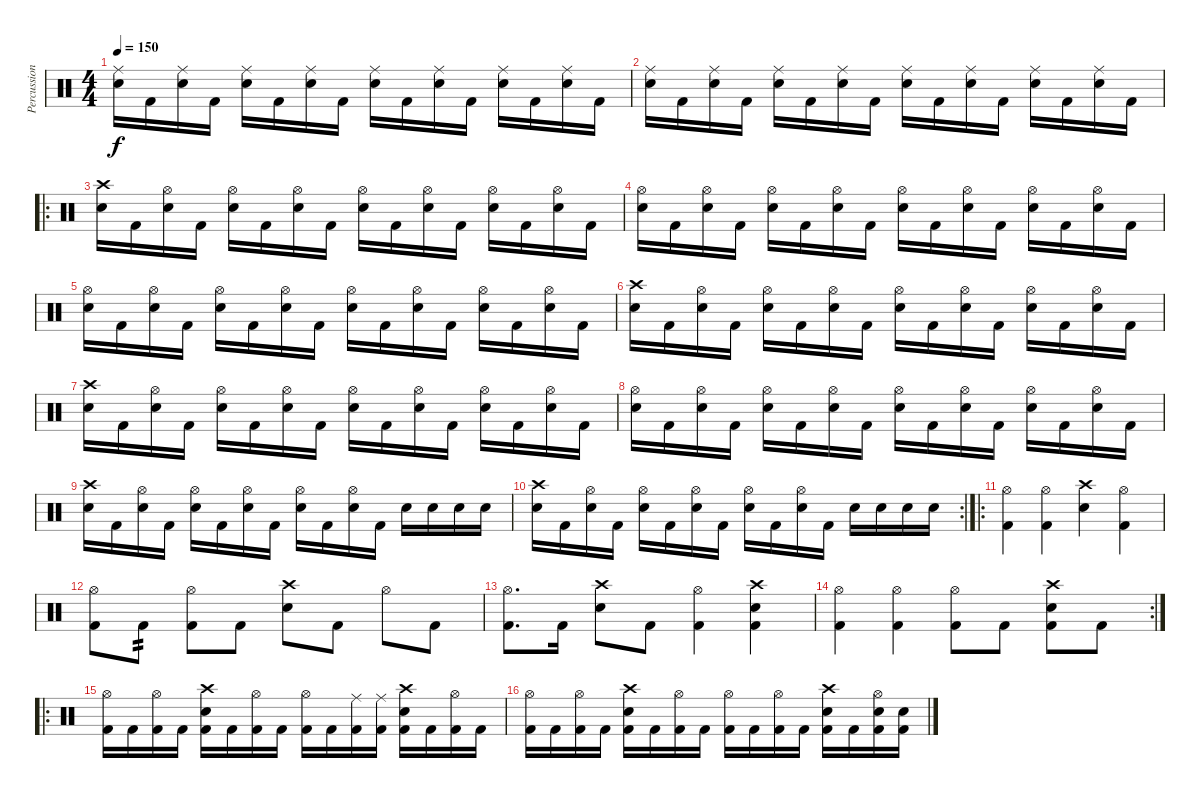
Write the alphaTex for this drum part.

\track ("Percussion" "Percussion") {instrument percussion}
\staff {score}
\articulation defaults
\ts (4 4)
\tempo 150
\clef neutral
\ks c
("Ride (middle)" "Electric Snare (hit)").16{dy f} "Kick (hit) 2".16 ("Ride (middle)" "Electric Snare (hit)").16 "Kick (hit) 2".16 ("Ride (middle)" "Electric Snare (hit)").16 "Kick (hit) 2".16 ("Ride (middle)" "Electric Snare (hit)").16 "Kick (hit) 2".16 ("Ride (middle)" "Electric Snare (hit)").16 "Kick (hit) 2".16 ("Ride (middle)" "Electric Snare (hit)").16 "Kick (hit) 2".16 ("Ride (middle)" "Electric Snare (hit)").16 "Kick (hit) 2".16 ("Ride (middle)" "Electric Snare (hit)").16 "Kick (hit) 2".16 |
("Ride (middle)" "Electric Snare (hit)").16 "Kick (hit) 2".16 ("Ride (middle)" "Electric Snare (hit)").16 "Kick (hit) 2".16 ("Ride (middle)" "Electric Snare (hit)").16 "Kick (hit) 2".16 ("Ride (middle)" "Electric Snare (hit)").16 "Kick (hit) 2".16 ("Ride (middle)" "Electric Snare (hit)").16 "Kick (hit) 2".16 ("Ride (middle)" "Electric Snare (hit)").16 "Kick (hit) 2".16 ("Ride (middle)" "Electric Snare (hit)").16 "Kick (hit) 2".16 ("Ride (middle)" "Electric Snare (hit)").16 "Kick (hit) 2".16 |
\ro
("Crash high (hit)" "Electric Snare (hit)").16 "Kick (hit) 2".16 ("Hi-Hat (open)" "Electric Snare (hit)").16 "Kick (hit) 2".16 ("Hi-Hat (open)" "Electric Snare (hit)").16 "Kick (hit) 2".16 ("Hi-Hat (open)" "Electric Snare (hit)").16 "Kick (hit) 2".16 ("Hi-Hat (open)" "Electric Snare (hit)").16 "Kick (hit) 2".16 ("Hi-Hat (open)" "Electric Snare (hit)").16 "Kick (hit) 2".16 ("Hi-Hat (open)" "Electric Snare (hit)").16 "Kick (hit) 2".16 ("Hi-Hat (open)" "Electric Snare (hit)").16 "Kick (hit) 2".16 |
("Hi-Hat (open)" "Electric Snare (hit)").16 "Kick (hit) 2".16 ("Hi-Hat (open)" "Electric Snare (hit)").16 "Kick (hit) 2".16 ("Hi-Hat (open)" "Electric Snare (hit)").16 "Kick (hit) 2".16 ("Hi-Hat (open)" "Electric Snare (hit)").16 "Kick (hit) 2".16 ("Hi-Hat (open)" "Electric Snare (hit)").16 "Kick (hit) 2".16 ("Hi-Hat (open)" "Electric Snare (hit)").16 "Kick (hit) 2".16 ("Hi-Hat (open)" "Electric Snare (hit)").16 "Kick (hit) 2".16 ("Hi-Hat (open)" "Electric Snare (hit)").16 "Kick (hit) 2".16 |
("Hi-Hat (open)" "Electric Snare (hit)").16 "Kick (hit) 2".16 ("Hi-Hat (open)" "Electric Snare (hit)").16 "Kick (hit) 2".16 ("Hi-Hat (open)" "Electric Snare (hit)").16 "Kick (hit) 2".16 ("Hi-Hat (open)" "Electric Snare (hit)").16 "Kick (hit) 2".16 ("Hi-Hat (open)" "Electric Snare (hit)").16 "Kick (hit) 2".16 ("Hi-Hat (open)" "Electric Snare (hit)").16 "Kick (hit) 2".16 ("Hi-Hat (open)" "Electric Snare (hit)").16 "Kick (hit) 2".16 ("Hi-Hat (open)" "Electric Snare (hit)").16 "Kick (hit) 2".16 |
("Crash high (hit)" "Electric Snare (hit)").16 "Kick (hit) 2".16 ("Hi-Hat (open)" "Electric Snare (hit)").16 "Kick (hit) 2".16 ("Hi-Hat (open)" "Electric Snare (hit)").16 "Kick (hit) 2".16 ("Hi-Hat (open)" "Electric Snare (hit)").16 "Kick (hit) 2".16 ("Hi-Hat (open)" "Electric Snare (hit)").16 "Kick (hit) 2".16 ("Hi-Hat (open)" "Electric Snare (hit)").16 "Kick (hit) 2".16 ("Hi-Hat (open)" "Electric Snare (hit)").16 "Kick (hit) 2".16 ("Hi-Hat (open)" "Electric Snare (hit)").16 "Kick (hit) 2".16 |
("Crash high (hit)" "Electric Snare (hit)").16 "Kick (hit) 2".16 ("Hi-Hat (open)" "Electric Snare (hit)").16 "Kick (hit) 2".16 ("Hi-Hat (open)" "Electric Snare (hit)").16 "Kick (hit) 2".16 ("Hi-Hat (open)" "Electric Snare (hit)").16 "Kick (hit) 2".16 ("Hi-Hat (open)" "Electric Snare (hit)").16 "Kick (hit) 2".16 ("Hi-Hat (open)" "Electric Snare (hit)").16 "Kick (hit) 2".16 ("Hi-Hat (open)" "Electric Snare (hit)").16 "Kick (hit) 2".16 ("Hi-Hat (open)" "Electric Snare (hit)").16 "Kick (hit) 2".16 |
("Hi-Hat (open)" "Electric Snare (hit)").16 "Kick (hit) 2".16 ("Hi-Hat (open)" "Electric Snare (hit)").16 "Kick (hit) 2".16 ("Hi-Hat (open)" "Electric Snare (hit)").16 "Kick (hit) 2".16 ("Hi-Hat (open)" "Electric Snare (hit)").16 "Kick (hit) 2".16 ("Hi-Hat (open)" "Electric Snare (hit)").16 "Kick (hit) 2".16 ("Hi-Hat (open)" "Electric Snare (hit)").16 "Kick (hit) 2".16 ("Hi-Hat (open)" "Electric Snare (hit)").16 "Kick (hit) 2".16 ("Hi-Hat (open)" "Electric Snare (hit)").16 "Kick (hit) 2".16 |
("Crash high (hit)" "Electric Snare (hit)").16 "Kick (hit) 2".16 ("Hi-Hat (open)" "Electric Snare (hit)").16 "Kick (hit) 2".16 ("Hi-Hat (open)" "Electric Snare (hit)").16 "Kick (hit) 2".16 ("Hi-Hat (open)" "Electric Snare (hit)").16 "Kick (hit) 2".16 ("Hi-Hat (open)" "Electric Snare (hit)").16 "Kick (hit) 2".16 ("Hi-Hat (open)" "Electric Snare (hit)").16 "Kick (hit) 2".16 "Electric Snare (hit)".16 "Electric Snare (hit)".16 "Electric Snare (hit)".16 "Electric Snare (hit)".16 |
\rc 2
("Crash high (hit)" "Electric Snare (hit)").16 "Kick (hit) 2".16 ("Hi-Hat (open)" "Electric Snare (hit)").16 "Kick (hit) 2".16 ("Hi-Hat (open)" "Electric Snare (hit)").16 "Kick (hit) 2".16 ("Hi-Hat (open)" "Electric Snare (hit)").16 "Kick (hit) 2".16 ("Hi-Hat (open)" "Electric Snare (hit)").16 "Kick (hit) 2".16 ("Hi-Hat (open)" "Electric Snare (hit)").16 "Kick (hit) 2".16 "Electric Snare (hit)".16 "Electric Snare (hit)".16 "Electric Snare (hit)".16 "Electric Snare (hit)".16 |
\ro
("Hi-Hat (open)" "Kick (hit) 2").4 ("Hi-Hat (open)" "Kick (hit) 2").4 ("Crash high (hit)" "Electric Snare (hit)").4 ("Hi-Hat (open)" "Kick (hit) 2").4 |
("Hi-Hat (open)" "Kick (hit) 2").8 "Kick (hit) 2".8{tp 2} ("Hi-Hat (open)" "Kick (hit) 2").8 "Kick (hit) 2".8 ("Crash high (hit)" "Electric Snare (hit)").8 "Kick (hit) 2".8 "Hi-Hat (open)".8 "Kick (hit) 2".8 |
("Hi-Hat (open)" "Kick (hit) 2").8{d} "Kick (hit) 2".16 ("Crash high (hit)" "Electric Snare (hit)").8 "Kick (hit) 2".8 ("Hi-Hat (open)" "Kick (hit) 2").4 ("Crash high (hit)" "Electric Snare (hit)" "Kick (hit) 2").4 |
\rc 2
("Hi-Hat (open)" "Kick (hit) 2").4 ("Hi-Hat (open)" "Kick (hit) 2").4 ("Hi-Hat (open)" "Kick (hit) 2").8 "Kick (hit) 2".8 ("Crash high (hit)" "Electric Snare (hit)" "Kick (hit) 2").8 "Kick (hit) 2".8 |
\ro
("Hi-Hat (open)" "Kick (hit) 2").16 "Kick (hit) 2".16 ("Hi-Hat (open)" "Kick (hit) 2").16 "Kick (hit) 2".16 ("Crash high (hit)" "Electric Snare (hit)" "Kick (hit) 2").16 "Kick (hit) 2".16 ("Hi-Hat (open)" "Kick (hit) 2").16 "Kick (hit) 2".16 ("Hi-Hat (open)" "Kick (hit) 2").16 "Kick (hit) 2".16 ("Ride (middle)" "Kick (hit) 2").16 ("Ride (middle)" "Kick (hit) 2").16 ("Crash high (hit)" "Electric Snare (hit)" "Kick (hit) 2").16 "Kick (hit) 2".16 ("Hi-Hat (open)" "Kick (hit) 2").16 "Kick (hit) 2".16 |
("Hi-Hat (open)" "Kick (hit) 2").16 "Kick (hit) 2".16 ("Hi-Hat (open)" "Kick (hit) 2").16 "Kick (hit) 2".16 ("Crash high (hit)" "Electric Snare (hit)" "Kick (hit) 2").16 "Kick (hit) 2".16 ("Hi-Hat (open)" "Kick (hit) 2").16 "Kick (hit) 2".16 ("Hi-Hat (open)" "Kick (hit) 2").16 "Kick (hit) 2".16 ("Hi-Hat (open)" "Kick (hit) 2").16 "Kick (hit) 2".16 ("Crash high (hit)" "Electric Snare (hit)" "Kick (hit) 2").16 "Kick (hit) 2".16 ("Hi-Hat (open)" "Electric Snare (hit)" "Kick (hit) 2").16 ("Electric Snare (hit)" "Kick (hit) 2").16
